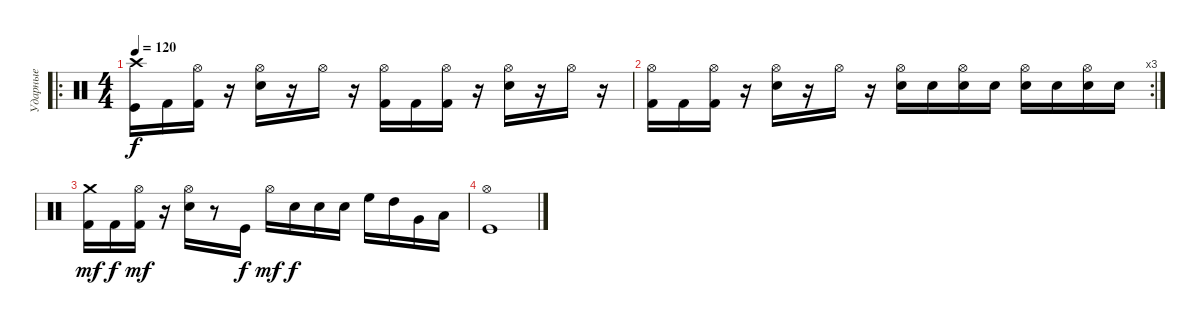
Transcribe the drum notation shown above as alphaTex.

\track ("Ударные" "Ударные") {instrument percussion}
\staff {score}
\articulation defaults
\ro
\ts (4 4)
\tempo 120
\clef neutral
\ks c
("Crash high (hit)" "Kick (hit)").16{dy f} "Kick (hit) 2".16 ("Hi-Hat (open)" "Kick (hit) 2").16 r.16 ("Hi-Hat (open)" "Snare (hit) 2").16 r.16 "Hi-Hat (open)".16 r.16 ("Hi-Hat (open)" "Kick (hit) 2").16 "Kick (hit) 2".16 ("Hi-Hat (open)" "Kick (hit) 2").16 r.16 ("Hi-Hat (open)" "Snare (hit) 2").16 r.16 "Hi-Hat (open)".16 r.16 |
\rc 3
("Hi-Hat (open)" "Kick (hit) 2").16 "Kick (hit) 2".16 ("Hi-Hat (open)" "Kick (hit) 2").16 r.16 ("Hi-Hat (open)" "Snare (hit) 2").16 r.16 "Hi-Hat (open)".16 r.16 ("Hi-Hat (open)" "Snare (hit) 2").16 "Snare (hit) 2".16 ("Hi-Hat (open)" "Snare (hit) 2").16 "Snare (hit) 2".16 ("Hi-Hat (open)" "Snare (hit) 2").16 "Snare (hit) 2".16 ("Hi-Hat (open)" "Snare (hit) 2").16 "Snare (hit) 2".16 |
("Crash medium (hit)" "Kick (hit) 2").16{dy mf} "Kick (hit) 2".16{dy f} ("Hi-Hat (open)" "Kick (hit) 2").16{dy mf} r.16 ("Hi-Hat (open)" "Snare (hit) 2").16 r.8 "Kick (hit)".16{dy f} "Hi-Hat (open)".16{dy mf} "Snare (hit) 2".16{dy f} "Snare (hit) 2".16 "Snare (hit) 2".16 "High Floor Tom (hit)".16 "High Tom (hit)".16 "Very Low Tom (hit)".16 "Low Floor Tom (hit)".16 |
("Hi-Hat (open)" "Kick (hit)").1
